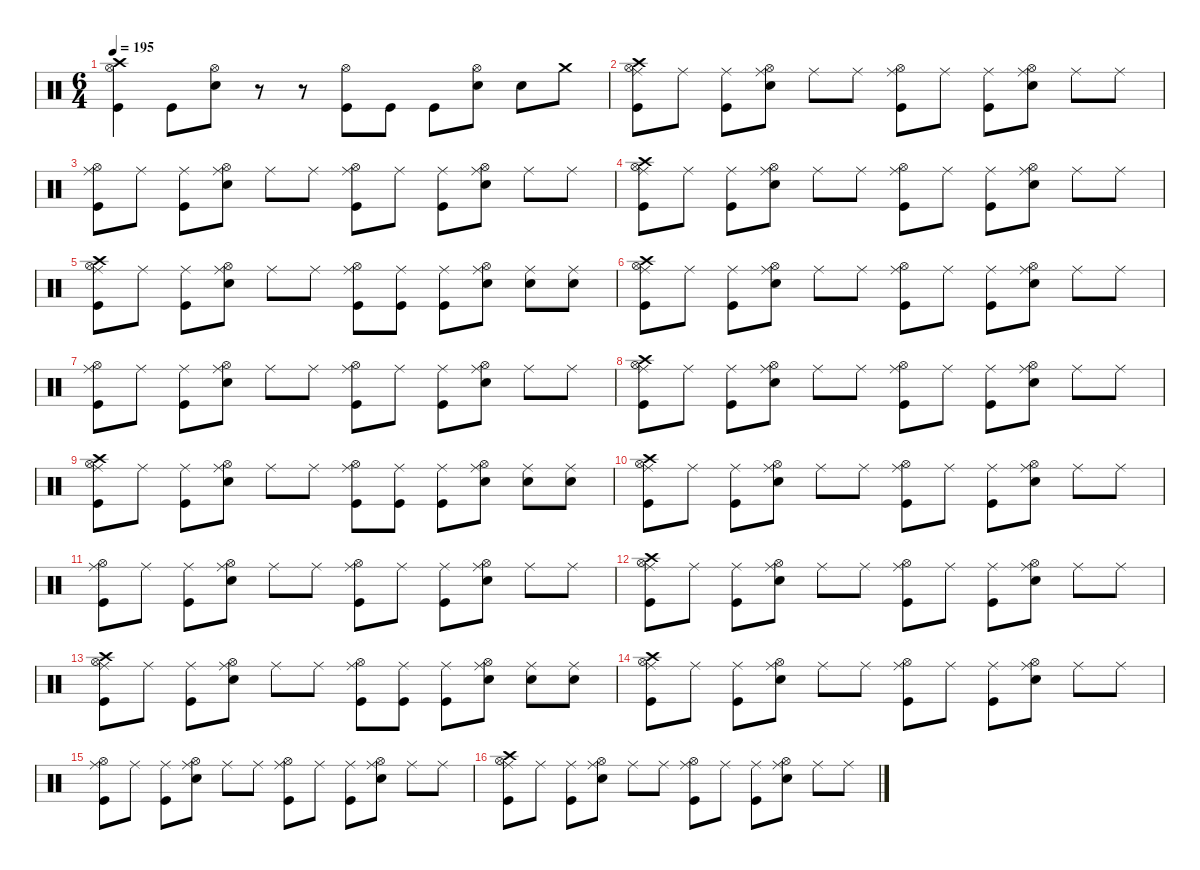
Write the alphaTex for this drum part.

\defaultSystemsLayout 4
\hideDynamics
\bracketExtendMode nobrackets
\singleTrackTrackNamePolicy hidden
\multiTrackTrackNamePolicy hidden
\firstSystemTrackNameMode fullname
\firstSystemTrackNameOrientation horizontal
\otherSystemsTrackNameOrientation horizontal
\track ("Percussion" "drm.") {instrument percussion}
\staff {score}
\articulation defaults
\ts (6 4)
\tempo 195
\clef neutral
\ks c
("Crash high (hit)" "Hi-Hat (open)" "Kick (hit)").4{dy f beam Down} "Kick (hit)".8{beam Down} ("Hi-Hat (open)" "Snare (hit) 2").8{beam Down} r.8{beam Down} r.8{beam Down} ("Hi-Hat (open)" "Kick (hit)").8{beam Down} "Kick (hit)".8{beam Down} "Kick (hit)".8{beam Down} ("Hi-Hat (open)" "Snare (hit) 2").8{beam Down} "Snare (hit) 2".8{beam Down} "Crash medium (hit)".8{beam Down} |
("Crash high (hit)" "Ride (middle)" "Hi-Hat (open)" "Kick (hit)").8{beam Down} "Ride (middle)".8{beam Down} ("Ride (middle)" "Kick (hit)").8{beam Down} ("Ride (middle)" "Snare (hit) 2" "Hi-Hat (open)").8{beam Down} "Ride (middle)".8{beam Down} "Ride (middle)".8{beam Down} ("Ride (middle)" "Hi-Hat (open)" "Kick (hit)").8{beam Down} "Ride (middle)".8{beam Down} ("Ride (middle)" "Kick (hit)").8{beam Down} ("Ride (middle)" "Snare (hit) 2" "Hi-Hat (open)").8{beam Down} "Ride (middle)".8{beam Down} "Ride (middle)".8{beam Down} |
("Ride (middle)" "Hi-Hat (open)" "Kick (hit)").8{beam Down} "Ride (middle)".8{beam Down} ("Ride (middle)" "Kick (hit)").8{beam Down} ("Ride (middle)" "Snare (hit) 2" "Hi-Hat (open)").8{beam Down} "Ride (middle)".8{beam Down} "Ride (middle)".8{beam Down} ("Ride (middle)" "Hi-Hat (open)" "Kick (hit)").8{beam Down} "Ride (middle)".8{beam Down} ("Ride (middle)" "Kick (hit)").8{beam Down} ("Ride (middle)" "Snare (hit) 2" "Hi-Hat (open)").8{beam Down} "Ride (middle)".8{beam Down} "Ride (middle)".8{beam Down} |
("Crash high (hit)" "Ride (middle)" "Hi-Hat (open)" "Kick (hit)").8{beam Down} "Ride (middle)".8{beam Down} ("Ride (middle)" "Kick (hit)").8{beam Down} ("Ride (middle)" "Snare (hit) 2" "Hi-Hat (open)").8{beam Down} "Ride (middle)".8{beam Down} "Ride (middle)".8{beam Down} ("Ride (middle)" "Hi-Hat (open)" "Kick (hit)").8{beam Down} "Ride (middle)".8{beam Down} ("Ride (middle)" "Kick (hit)").8{beam Down} ("Ride (middle)" "Snare (hit) 2" "Hi-Hat (open)").8{beam Down} "Ride (middle)".8{beam Down} "Ride (middle)".8{beam Down} |
("Crash high (hit)" "Ride (middle)" "Hi-Hat (open)" "Kick (hit)").8{beam Down} "Ride (middle)".8{beam Down} ("Ride (middle)" "Kick (hit)").8{beam Down} ("Ride (middle)" "Snare (hit) 2" "Hi-Hat (open)").8{beam Down} "Ride (middle)".8{beam Down} "Ride (middle)".8{beam Down} ("Ride (middle)" "Hi-Hat (open)" "Kick (hit)").8{beam Down} ("Ride (middle)" "Kick (hit)").8{beam Down} ("Ride (middle)" "Kick (hit)").8{beam Down} ("Ride (middle)" "Snare (hit) 2" "Hi-Hat (open)").8{beam Down} ("Ride (middle)" "Snare (hit) 2").8{beam Down} ("Ride (middle)" "Snare (hit) 2").8{beam Down} |
("Crash high (hit)" "Ride (middle)" "Hi-Hat (open)" "Kick (hit)").8{beam Down} "Ride (middle)".8{beam Down} ("Ride (middle)" "Kick (hit)").8{beam Down} ("Ride (middle)" "Snare (hit) 2" "Hi-Hat (open)").8{beam Down} "Ride (middle)".8{beam Down} "Ride (middle)".8{beam Down} ("Ride (middle)" "Hi-Hat (open)" "Kick (hit)").8{beam Down} "Ride (middle)".8{beam Down} ("Ride (middle)" "Kick (hit)").8{beam Down} ("Ride (middle)" "Snare (hit) 2" "Hi-Hat (open)").8{beam Down} "Ride (middle)".8{beam Down} "Ride (middle)".8{beam Down} |
("Ride (middle)" "Hi-Hat (open)" "Kick (hit)").8{beam Down} "Ride (middle)".8{beam Down} ("Ride (middle)" "Kick (hit)").8{beam Down} ("Ride (middle)" "Snare (hit) 2" "Hi-Hat (open)").8{beam Down} "Ride (middle)".8{beam Down} "Ride (middle)".8{beam Down} ("Ride (middle)" "Hi-Hat (open)" "Kick (hit)").8{beam Down} "Ride (middle)".8{beam Down} ("Ride (middle)" "Kick (hit)").8{beam Down} ("Ride (middle)" "Snare (hit) 2" "Hi-Hat (open)").8{beam Down} "Ride (middle)".8{beam Down} "Ride (middle)".8{beam Down} |
("Crash high (hit)" "Ride (middle)" "Hi-Hat (open)" "Kick (hit)").8{beam Down} "Ride (middle)".8{beam Down} ("Ride (middle)" "Kick (hit)").8{beam Down} ("Ride (middle)" "Snare (hit) 2" "Hi-Hat (open)").8{beam Down} "Ride (middle)".8{beam Down} "Ride (middle)".8{beam Down} ("Ride (middle)" "Hi-Hat (open)" "Kick (hit)").8{beam Down} "Ride (middle)".8{beam Down} ("Ride (middle)" "Kick (hit)").8{beam Down} ("Ride (middle)" "Snare (hit) 2" "Hi-Hat (open)").8{beam Down} "Ride (middle)".8{beam Down} "Ride (middle)".8{beam Down} |
("Crash high (hit)" "Ride (middle)" "Hi-Hat (open)" "Kick (hit)").8{beam Down} "Ride (middle)".8{beam Down} ("Ride (middle)" "Kick (hit)").8{beam Down} ("Ride (middle)" "Snare (hit) 2" "Hi-Hat (open)").8{beam Down} "Ride (middle)".8{beam Down} "Ride (middle)".8{beam Down} ("Ride (middle)" "Hi-Hat (open)" "Kick (hit)").8{beam Down} ("Ride (middle)" "Kick (hit)").8{beam Down} ("Ride (middle)" "Kick (hit)").8{beam Down} ("Ride (middle)" "Snare (hit) 2" "Hi-Hat (open)").8{beam Down} ("Ride (middle)" "Snare (hit) 2").8{beam Down} ("Ride (middle)" "Snare (hit) 2").8{beam Down} |
("Crash high (hit)" "Ride (middle)" "Hi-Hat (open)" "Kick (hit)").8{beam Down} "Ride (middle)".8{beam Down} ("Ride (middle)" "Kick (hit)").8{beam Down} ("Ride (middle)" "Snare (hit) 2" "Hi-Hat (open)").8{beam Down} "Ride (middle)".8{beam Down} "Ride (middle)".8{beam Down} ("Ride (middle)" "Hi-Hat (open)" "Kick (hit)").8{beam Down} "Ride (middle)".8{beam Down} ("Ride (middle)" "Kick (hit)").8{beam Down} ("Ride (middle)" "Snare (hit) 2" "Hi-Hat (open)").8{beam Down} "Ride (middle)".8{beam Down} "Ride (middle)".8{beam Down} |
("Ride (middle)" "Hi-Hat (open)" "Kick (hit)").8{beam Down} "Ride (middle)".8{beam Down} ("Ride (middle)" "Kick (hit)").8{beam Down} ("Ride (middle)" "Snare (hit) 2" "Hi-Hat (open)").8{beam Down} "Ride (middle)".8{beam Down} "Ride (middle)".8{beam Down} ("Ride (middle)" "Hi-Hat (open)" "Kick (hit)").8{beam Down} "Ride (middle)".8{beam Down} ("Ride (middle)" "Kick (hit)").8{beam Down} ("Ride (middle)" "Snare (hit) 2" "Hi-Hat (open)").8{beam Down} "Ride (middle)".8{beam Down} "Ride (middle)".8{beam Down} |
("Crash high (hit)" "Ride (middle)" "Hi-Hat (open)" "Kick (hit)").8{beam Down} "Ride (middle)".8{beam Down} ("Ride (middle)" "Kick (hit)").8{beam Down} ("Ride (middle)" "Snare (hit) 2" "Hi-Hat (open)").8{beam Down} "Ride (middle)".8{beam Down} "Ride (middle)".8{beam Down} ("Ride (middle)" "Hi-Hat (open)" "Kick (hit)").8{beam Down} "Ride (middle)".8{beam Down} ("Ride (middle)" "Kick (hit)").8{beam Down} ("Ride (middle)" "Snare (hit) 2" "Hi-Hat (open)").8{beam Down} "Ride (middle)".8{beam Down} "Ride (middle)".8{beam Down} |
("Crash high (hit)" "Ride (middle)" "Hi-Hat (open)" "Kick (hit)").8{beam Down} "Ride (middle)".8{beam Down} ("Ride (middle)" "Kick (hit)").8{beam Down} ("Ride (middle)" "Snare (hit) 2" "Hi-Hat (open)").8{beam Down} "Ride (middle)".8{beam Down} "Ride (middle)".8{beam Down} ("Ride (middle)" "Hi-Hat (open)" "Kick (hit)").8{beam Down} ("Ride (middle)" "Kick (hit)").8{beam Down} ("Ride (middle)" "Kick (hit)").8{beam Down} ("Ride (middle)" "Snare (hit) 2" "Hi-Hat (open)").8{beam Down} ("Ride (middle)" "Snare (hit) 2").8{beam Down} ("Ride (middle)" "Snare (hit) 2").8{beam Down} |
("Crash high (hit)" "Ride (middle)" "Hi-Hat (open)" "Kick (hit)").8{beam Down} "Ride (middle)".8{beam Down} ("Ride (middle)" "Kick (hit)").8{beam Down} ("Ride (middle)" "Snare (hit) 2" "Hi-Hat (open)").8{beam Down} "Ride (middle)".8{beam Down} "Ride (middle)".8{beam Down} ("Ride (middle)" "Hi-Hat (open)" "Kick (hit)").8{beam Down} "Ride (middle)".8{beam Down} ("Ride (middle)" "Kick (hit)").8{beam Down} ("Ride (middle)" "Snare (hit) 2" "Hi-Hat (open)").8{beam Down} "Ride (middle)".8{beam Down} "Ride (middle)".8{beam Down} |
("Ride (middle)" "Hi-Hat (open)" "Kick (hit)").8{beam Down} "Ride (middle)".8{beam Down} ("Ride (middle)" "Kick (hit)").8{beam Down} ("Ride (middle)" "Snare (hit) 2" "Hi-Hat (open)").8{beam Down} "Ride (middle)".8{beam Down} "Ride (middle)".8{beam Down} ("Ride (middle)" "Hi-Hat (open)" "Kick (hit)").8{beam Down} "Ride (middle)".8{beam Down} ("Ride (middle)" "Kick (hit)").8{beam Down} ("Ride (middle)" "Snare (hit) 2" "Hi-Hat (open)").8{beam Down} "Ride (middle)".8{beam Down} "Ride (middle)".8{beam Down} |
("Crash high (hit)" "Ride (middle)" "Hi-Hat (open)" "Kick (hit)").8{beam Down} "Ride (middle)".8{beam Down} ("Ride (middle)" "Kick (hit)").8{beam Down} ("Ride (middle)" "Snare (hit) 2" "Hi-Hat (open)").8{beam Down} "Ride (middle)".8{beam Down} "Ride (middle)".8{beam Down} ("Ride (middle)" "Hi-Hat (open)" "Kick (hit)").8{beam Down} "Ride (middle)".8{beam Down} ("Ride (middle)" "Kick (hit)").8{beam Down} ("Ride (middle)" "Snare (hit) 2" "Hi-Hat (open)").8{beam Down} "Ride (middle)".8{beam Down} "Ride (middle)".8{beam Down}
